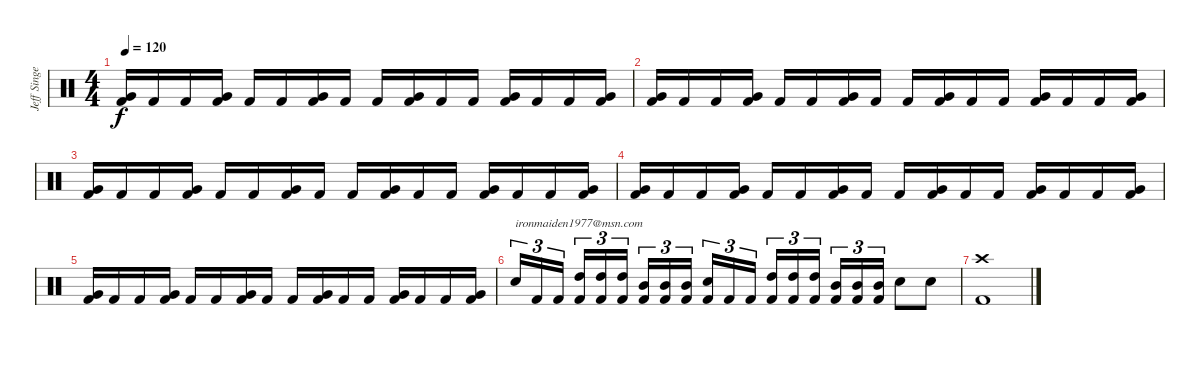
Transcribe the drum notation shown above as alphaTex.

\track ("Jeff Singer" "Jeff Singe") {instrument percussion}
\staff {score}
\articulation defaults
\ts (4 4)
\tempo 120
\clef neutral
\ks c
("Very Low Tom (hit)" "Kick (hit) 2").16{dy f} "Kick (hit) 2".16 "Kick (hit) 2".16 ("Very Low Tom (hit)" "Kick (hit) 2").16 "Kick (hit) 2".16 "Kick (hit) 2".16 ("Very Low Tom (hit)" "Kick (hit) 2").16 "Kick (hit) 2".16 "Kick (hit) 2".16 ("Very Low Tom (hit)" "Kick (hit) 2").16 "Kick (hit) 2".16 "Kick (hit) 2".16 ("Very Low Tom (hit)" "Kick (hit) 2").16 "Kick (hit) 2".16 "Kick (hit) 2".16 ("Very Low Tom (hit)" "Kick (hit) 2").16 |
("Very Low Tom (hit)" "Kick (hit) 2").16 "Kick (hit) 2".16 "Kick (hit) 2".16 ("Very Low Tom (hit)" "Kick (hit) 2").16 "Kick (hit) 2".16 "Kick (hit) 2".16 ("Very Low Tom (hit)" "Kick (hit) 2").16 "Kick (hit) 2".16 "Kick (hit) 2".16 ("Very Low Tom (hit)" "Kick (hit) 2").16 "Kick (hit) 2".16 "Kick (hit) 2".16 ("Very Low Tom (hit)" "Kick (hit) 2").16 "Kick (hit) 2".16 "Kick (hit) 2".16 ("Very Low Tom (hit)" "Kick (hit) 2").16 |
("Very Low Tom (hit)" "Kick (hit) 2").16 "Kick (hit) 2".16 "Kick (hit) 2".16 ("Very Low Tom (hit)" "Kick (hit) 2").16 "Kick (hit) 2".16 "Kick (hit) 2".16 ("Very Low Tom (hit)" "Kick (hit) 2").16 "Kick (hit) 2".16 "Kick (hit) 2".16 ("Very Low Tom (hit)" "Kick (hit) 2").16 "Kick (hit) 2".16 "Kick (hit) 2".16 ("Very Low Tom (hit)" "Kick (hit) 2").16 "Kick (hit) 2".16 "Kick (hit) 2".16 ("Very Low Tom (hit)" "Kick (hit) 2").16 |
("Very Low Tom (hit)" "Kick (hit) 2").16 "Kick (hit) 2".16 "Kick (hit) 2".16 ("Very Low Tom (hit)" "Kick (hit) 2").16 "Kick (hit) 2".16 "Kick (hit) 2".16 ("Very Low Tom (hit)" "Kick (hit) 2").16 "Kick (hit) 2".16 "Kick (hit) 2".16 ("Very Low Tom (hit)" "Kick (hit) 2").16 "Kick (hit) 2".16 "Kick (hit) 2".16 ("Very Low Tom (hit)" "Kick (hit) 2").16 "Kick (hit) 2".16 "Kick (hit) 2".16 ("Very Low Tom (hit)" "Kick (hit) 2").16 |
("Very Low Tom (hit)" "Kick (hit) 2").16 "Kick (hit) 2".16 "Kick (hit) 2".16 ("Very Low Tom (hit)" "Kick (hit) 2").16 "Kick (hit) 2".16 "Kick (hit) 2".16 ("Very Low Tom (hit)" "Kick (hit) 2").16 "Kick (hit) 2".16 "Kick (hit) 2".16 ("Very Low Tom (hit)" "Kick (hit) 2").16 "Kick (hit) 2".16 "Kick (hit) 2".16 ("Very Low Tom (hit)" "Kick (hit) 2").16 "Kick (hit) 2".16 "Kick (hit) 2".16 ("Very Low Tom (hit)" "Kick (hit) 2").16 |
"Snare (hit) 2".16{tu (3 2) txt "ironmaiden1977@msn.com"} "Kick (hit) 2".16{tu (3 2)} "Kick (hit) 2".16{tu (3 2)} ("High Tom (hit)" "Kick (hit) 2").16{tu (3 2)} ("High Tom (hit)" "Kick (hit) 2").16{tu (3 2)} ("High Tom (hit)" "Kick (hit) 2").16{tu (3 2)} ("Mid Tom (hit)" "Kick (hit) 2").16{tu (3 2)} ("Mid Tom (hit)" "Kick (hit) 2").16{tu (3 2)} ("Mid Tom (hit)" "Kick (hit) 2").16{tu (3 2)} ("Snare (hit) 2" "Kick (hit) 2").16{tu (3 2)} "Kick (hit) 2".16{tu (3 2)} "Kick (hit) 2".16{tu (3 2)} ("High Tom (hit)" "Kick (hit) 2").16{tu (3 2)} ("High Tom (hit)" "Kick (hit) 2").16{tu (3 2)} ("High Tom (hit)" "Kick (hit) 2").16{tu (3 2)} ("Mid Tom (hit)" "Kick (hit) 2").16{tu (3 2)} ("Mid Tom (hit)" "Kick (hit) 2").16{tu (3 2)} ("Mid Tom (hit)" "Kick (hit) 2").16{tu (3 2)} "Snare (hit) 2".8 "Snare (hit) 2".8 |
("Crash high (hit)" "Kick (hit) 2").1
